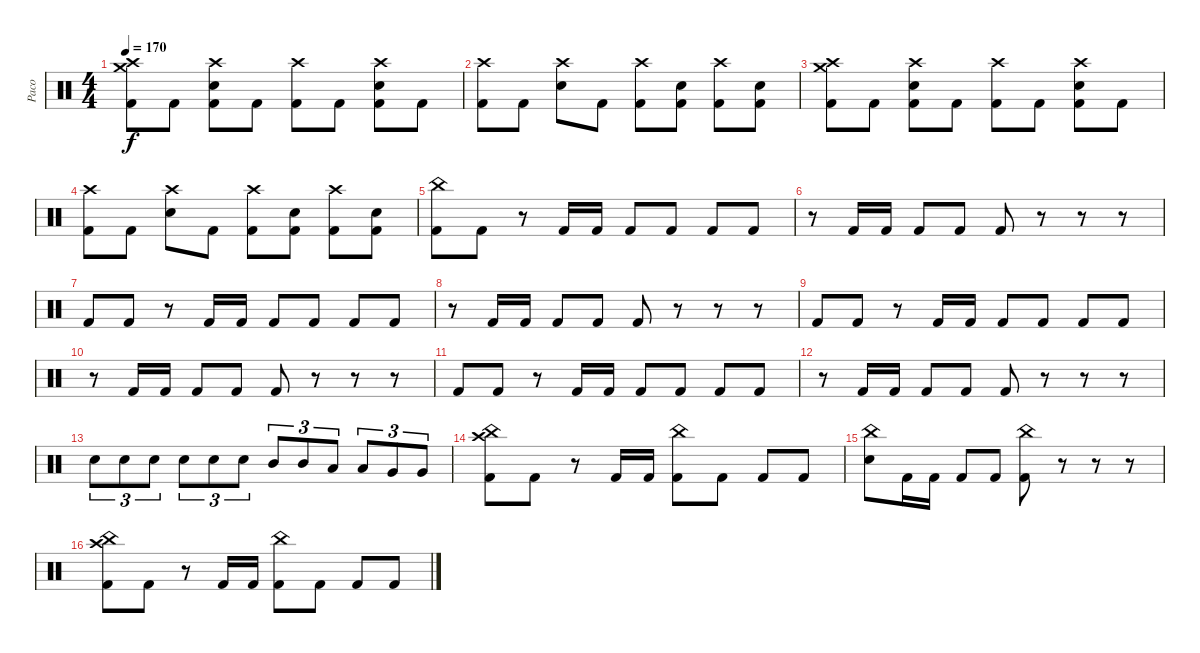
\track ("Paco" "Paco") {instrument percussion}
\staff {score}
\articulation defaults
\ts (4 4)
\tempo 170
\clef neutral
\ks c
("Crash high (hit)" "Crash medium (hit)" "Kick (hit) 2").8{dy f} "Kick (hit) 2".8 ("Crash high (hit)" "Electric Snare (hit)" "Kick (hit) 2").8 "Kick (hit) 2".8 ("Crash high (hit)" "Kick (hit) 2").8 "Kick (hit) 2".8 ("Crash high (hit)" "Electric Snare (hit)" "Kick (hit) 2").8 "Kick (hit) 2".8 |
("Crash high (hit)" "Kick (hit) 2").8 "Kick (hit) 2".8 ("Crash high (hit)" "Electric Snare (hit)").8 "Kick (hit) 2".8 ("Crash high (hit)" "Kick (hit) 2").8 ("Electric Snare (hit)" "Kick (hit) 2").8 ("Crash high (hit)" "Kick (hit) 2").8 ("Electric Snare (hit)" "Kick (hit) 2").8 |
("Crash high (hit)" "Crash medium (hit)" "Kick (hit) 2").8 "Kick (hit) 2".8 ("Crash high (hit)" "Electric Snare (hit)" "Kick (hit) 2").8 "Kick (hit) 2".8 ("Crash high (hit)" "Kick (hit) 2").8 "Kick (hit) 2".8 ("Crash high (hit)" "Electric Snare (hit)" "Kick (hit) 2").8 "Kick (hit) 2".8 |
("Crash high (hit)" "Kick (hit) 2").8 "Kick (hit) 2".8 ("Crash high (hit)" "Electric Snare (hit)").8 "Kick (hit) 2".8 ("Crash high (hit)" "Kick (hit) 2").8 ("Electric Snare (hit)" "Kick (hit) 2").8 ("Crash high (hit)" "Kick (hit) 2").8 ("Electric Snare (hit)" "Kick (hit) 2").8 |
("China (hit)" "Kick (hit) 2").8 "Kick (hit) 2".8 r.8 "Kick (hit) 2".16 "Kick (hit) 2".16 "Kick (hit) 2".8 "Kick (hit) 2".8 "Kick (hit) 2".8 "Kick (hit) 2".8 |
r.8 "Kick (hit) 2".16 "Kick (hit) 2".16 "Kick (hit) 2".8 "Kick (hit) 2".8 "Kick (hit) 2".8 r.8 r.8 r.8 |
"Kick (hit) 2".8 "Kick (hit) 2".8 r.8 "Kick (hit) 2".16 "Kick (hit) 2".16 "Kick (hit) 2".8 "Kick (hit) 2".8 "Kick (hit) 2".8 "Kick (hit) 2".8 |
r.8 "Kick (hit) 2".16 "Kick (hit) 2".16 "Kick (hit) 2".8 "Kick (hit) 2".8 "Kick (hit) 2".8 r.8 r.8 r.8 |
"Kick (hit) 2".8 "Kick (hit) 2".8 r.8 "Kick (hit) 2".16 "Kick (hit) 2".16 "Kick (hit) 2".8 "Kick (hit) 2".8 "Kick (hit) 2".8 "Kick (hit) 2".8 |
r.8 "Kick (hit) 2".16 "Kick (hit) 2".16 "Kick (hit) 2".8 "Kick (hit) 2".8 "Kick (hit) 2".8 r.8 r.8 r.8 |
"Kick (hit) 2".8 "Kick (hit) 2".8 r.8 "Kick (hit) 2".16 "Kick (hit) 2".16 "Kick (hit) 2".8 "Kick (hit) 2".8 "Kick (hit) 2".8 "Kick (hit) 2".8 |
r.8 "Kick (hit) 2".16 "Kick (hit) 2".16 "Kick (hit) 2".8 "Kick (hit) 2".8 "Kick (hit) 2".8 r.8 r.8 r.8 |
"Electric Snare (hit)".8{tu (3 2)} "Electric Snare (hit)".8{tu (3 2)} "Electric Snare (hit)".8{tu (3 2)} "Electric Snare (hit)".8{tu (3 2)} "Electric Snare (hit)".8{tu (3 2)} "Electric Snare (hit)".8{tu (3 2)} "Mid Tom (hit)".8{tu (3 2)} "Mid Tom (hit)".8{tu (3 2)} "Low Tom (hit)".8{tu (3 2)} "Low Tom (hit)".8{tu (3 2)} "Very Low Tom (hit)".8{tu (3 2)} "Very Low Tom (hit)".8{tu (3 2)} |
("China (hit)" "Crash high (hit)" "Kick (hit) 2").8 "Kick (hit) 2".8 r.8 "Kick (hit) 2".16 "Kick (hit) 2".16 ("China (hit)" "Kick (hit) 2").8 "Kick (hit) 2".8 "Kick (hit) 2".8 "Kick (hit) 2".8 |
("China (hit)" "Electric Snare (hit)").8 "Kick (hit) 2".16 "Kick (hit) 2".16 "Kick (hit) 2".8 "Kick (hit) 2".8 ("China (hit)" "Kick (hit) 2").8 r.8 r.8 r.8 |
("China (hit)" "Crash high (hit)" "Kick (hit) 2").8 "Kick (hit) 2".8 r.8 "Kick (hit) 2".16 "Kick (hit) 2".16 ("China (hit)" "Kick (hit) 2").8 "Kick (hit) 2".8 "Kick (hit) 2".8 "Kick (hit) 2".8
